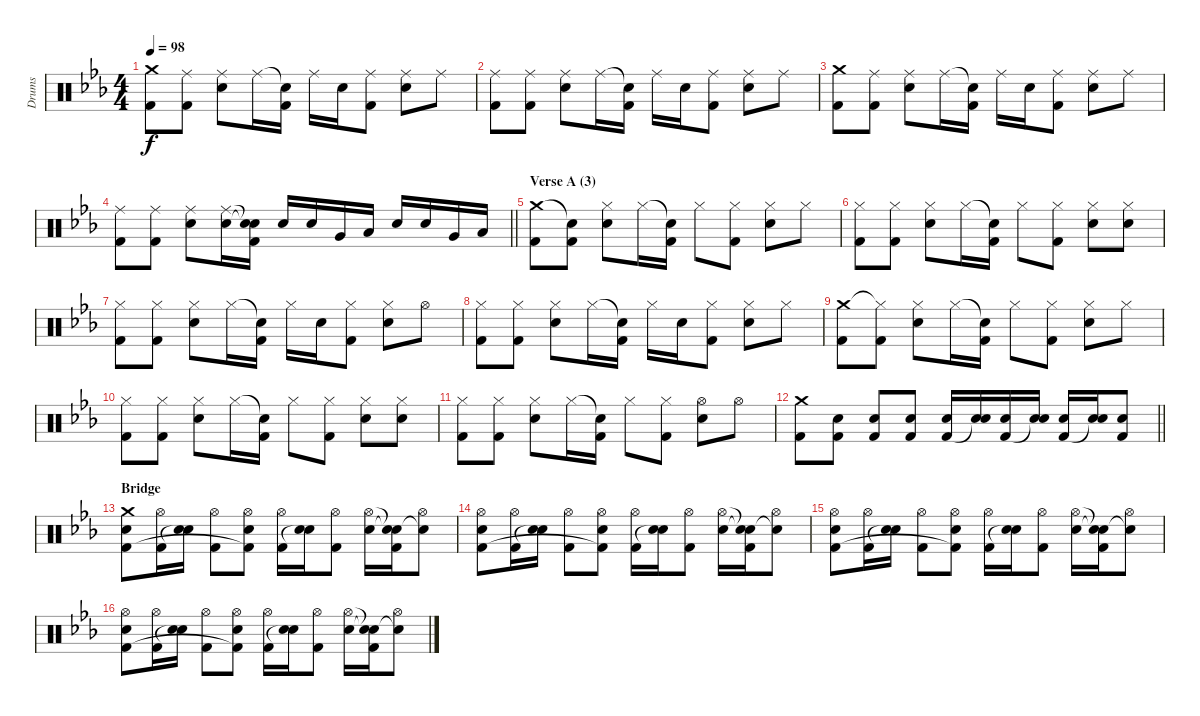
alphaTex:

\track ("Drums" "Drums") {instrument percussion}
\staff {score}
\articulation defaults
\ts (4 4)
\tempo 98
\clef neutral
\ks cminor
("Crash medium (hit)" "Kick (hit) 2").8{dy f} ("Ride (middle)" "Kick (hit) 2").8 ("Ride (middle)" "Electric Snare (hit)").8 "Ride (middle)".16 ("Snare (hit)"{t} "Kick (hit) 2").16 "Ride (middle)".16 "Electric Snare (hit)".16 ("Ride (middle)" "Kick (hit) 2").8 ("Ride (middle)" "Electric Snare (hit)").8 "Ride (middle)".8 |
("Ride (middle)" "Kick (hit) 2").8 ("Ride (middle)" "Kick (hit) 2").8 ("Ride (middle)" "Electric Snare (hit)").8 "Ride (middle)".16 ("Snare (hit)"{t} "Kick (hit) 2").16 "Ride (middle)".16 "Electric Snare (hit)".16 ("Ride (middle)" "Kick (hit) 2").8 ("Ride (middle)" "Electric Snare (hit)").8 "Ride (middle)".8 |
("Crash medium (hit)" "Kick (hit) 2").8 ("Ride (middle)" "Kick (hit) 2").8 ("Ride (middle)" "Electric Snare (hit)").8 "Ride (middle)".16 ("Snare (hit)"{t} "Kick (hit) 2").16 "Ride (middle)".16 "Electric Snare (hit)".16 ("Ride (middle)" "Kick (hit) 2").8 ("Ride (middle)" "Electric Snare (hit)").8 "Ride (middle)".8 |
\barLineRight lightlight
("Ride (middle)" "Kick (hit) 2").8 ("Ride (middle)" "Kick (hit) 2").8 ("Ride (middle)" "Electric Snare (hit)").8 ("Ride (middle)" "Electric Snare (hit)").16 ("Snare (hit)"{t} "Snare (hit)"{t} "Kick (hit) 2").16 "Electric Snare (hit)".16 "Electric Snare (hit)".16 "Very Low Tom (hit)".16 "Low Floor Tom (hit)".16 "Electric Snare (hit)".16 "Electric Snare (hit)".16 "Very Low Tom (hit)".16 "Low Floor Tom (hit)".16 |
\section ("" "Verse A (3)")
("Crash medium (hit)" "Kick (hit) 2").8 ("Snare (hit)"{t} "Kick (hit) 2").8 ("Hi-Hat (closed)" "Electric Snare (hit)").8 "Hi-Hat (closed)".16 ("Snare (hit)"{t} "Kick (hit) 2").16 "Hi-Hat (closed)".8 ("Hi-Hat (closed)" "Kick (hit) 2").8 ("Hi-Hat (closed)" "Electric Snare (hit)").8 "Hi-Hat (closed)".8 |
("Hi-Hat (closed)" "Kick (hit) 2").8 ("Hi-Hat (closed)" "Kick (hit) 2").8 ("Hi-Hat (closed)" "Electric Snare (hit)").8 "Hi-Hat (closed)".16 ("Snare (hit)"{t} "Kick (hit) 2").16 "Hi-Hat (closed)".8 ("Hi-Hat (closed)" "Kick (hit) 2").8 ("Hi-Hat (closed)" "Electric Snare (hit)").8 ("Hi-Hat (closed)" "Electric Snare (hit)").8 |
("Hi-Hat (closed)" "Kick (hit) 2").8 ("Hi-Hat (closed)" "Kick (hit) 2").8 ("Hi-Hat (closed)" "Electric Snare (hit)").8 "Hi-Hat (closed)".16 ("Snare (hit)"{t} "Kick (hit) 2").16 "Hi-Hat (closed)".16 "Electric Snare (hit)".16 ("Hi-Hat (closed)" "Kick (hit) 2").8 ("Hi-Hat (closed)" "Electric Snare (hit)").8 "Hi-Hat (open)".8 |
("Hi-Hat (closed)" "Kick (hit) 2").8 ("Hi-Hat (closed)" "Kick (hit) 2").8 ("Hi-Hat (closed)" "Electric Snare (hit)").8 "Hi-Hat (closed)".16 ("Snare (hit)"{t} "Kick (hit) 2").16 "Hi-Hat (closed)".16 "Electric Snare (hit)".16 ("Hi-Hat (closed)" "Kick (hit) 2").8 ("Hi-Hat (closed)" "Electric Snare (hit)").8 "Hi-Hat (closed)".8 |
("Crash medium (hit)" "Kick (hit) 2").8 ("Hi-Hat (closed)"{t} "Kick (hit) 2").8 ("Hi-Hat (closed)" "Electric Snare (hit)").8 "Hi-Hat (closed)".16 ("Snare (hit)"{t} "Kick (hit) 2").16 "Hi-Hat (closed)".8 ("Hi-Hat (closed)" "Kick (hit) 2").8 ("Hi-Hat (closed)" "Electric Snare (hit)").8 "Hi-Hat (closed)".8 |
("Hi-Hat (closed)" "Kick (hit) 2").8 ("Hi-Hat (closed)" "Kick (hit) 2").8 ("Hi-Hat (closed)" "Electric Snare (hit)").8 "Hi-Hat (closed)".16 ("Snare (hit)"{t} "Kick (hit) 2").16 "Hi-Hat (closed)".8 ("Hi-Hat (closed)" "Kick (hit) 2").8 ("Hi-Hat (closed)" "Electric Snare (hit)").8 ("Hi-Hat (closed)" "Electric Snare (hit)").8 |
("Hi-Hat (closed)" "Kick (hit) 2").8 ("Hi-Hat (closed)" "Kick (hit) 2").8 ("Hi-Hat (closed)" "Electric Snare (hit)").8 "Hi-Hat (closed)".16 ("Snare (hit)"{t} "Kick (hit) 2").16 "Hi-Hat (closed)".8 ("Hi-Hat (closed)" "Kick (hit) 2").8 ("Hi-Hat (open)" "Electric Snare (hit)").8 "Hi-Hat (open)".8 |
\barLineRight lightlight
("Crash medium (hit)" "Kick (hit) 2").8 ("Electric Snare (hit)" "Kick (hit) 2").8 ("Electric Snare (hit)" "Kick (hit) 2").8 ("Electric Snare (hit)" "Kick (hit) 2").8 ("Electric Snare (hit)" "Kick (hit) 2").16 ("Electric Snare (hit)" "Snare (hit)"{t}).16 ("Electric Snare (hit)" "Kick (hit) 2").16 ("Electric Snare (hit)" "Snare (hit)"{t}).16 ("Electric Snare (hit)" "Kick (hit) 2").16 ("Electric Snare (hit)" "Snare (hit)"{t}).16 ("Electric Snare (hit)" "Kick (hit) 2").8 |
\section ("" "Bridge")
("Crash medium (hit)" "Electric Snare (hit)" "Kick (hit) 2").8 ("Hi-Hat (open)" "Kick (hit) 2").16 ("Electric Snare (hit)" "Snare (hit)"{t}).16 ("Hi-Hat (open)" "Kick (hit) 2").8 ("Hi-Hat (open)" "Electric Snare (hit)" "Kick (hit) 2"{t}).8 ("Hi-Hat (open)" "Kick (hit) 2").16 ("Electric Snare (hit)" "Snare (hit)"{t}).16 ("Hi-Hat (open)" "Kick (hit) 2").8 ("Hi-Hat (open)" "Electric Snare (hit)").16 ("Snare (hit)"{t} "Snare (hit)"{t} "Kick (hit) 2").16 ("Hi-Hat (open)" "Snare (hit)"{t}).8 |
("Hi-Hat (open)" "Electric Snare (hit)" "Kick (hit) 2").8 ("Hi-Hat (open)" "Kick (hit) 2").16 ("Electric Snare (hit)" "Snare (hit)"{t}).16 ("Hi-Hat (open)" "Kick (hit) 2").8 ("Hi-Hat (open)" "Electric Snare (hit)" "Kick (hit) 2"{t}).8 ("Hi-Hat (open)" "Kick (hit) 2").16 ("Electric Snare (hit)" "Snare (hit)"{t}).16 ("Hi-Hat (open)" "Kick (hit) 2").8 ("Hi-Hat (open)" "Electric Snare (hit)").16 ("Snare (hit)"{t} "Snare (hit)"{t} "Kick (hit) 2").16 ("Hi-Hat (open)" "Snare (hit)"{t}).8 |
("Hi-Hat (open)" "Electric Snare (hit)" "Kick (hit) 2").8 ("Hi-Hat (open)" "Kick (hit) 2").16 ("Electric Snare (hit)" "Snare (hit)"{t}).16 ("Hi-Hat (open)" "Kick (hit) 2").8 ("Hi-Hat (open)" "Electric Snare (hit)" "Kick (hit) 2"{t}).8 ("Hi-Hat (open)" "Kick (hit) 2").16 ("Electric Snare (hit)" "Snare (hit)"{t}).16 ("Hi-Hat (open)" "Kick (hit) 2").8 ("Hi-Hat (open)" "Electric Snare (hit)").16 ("Snare (hit)"{t} "Snare (hit)"{t} "Kick (hit) 2").16 ("Hi-Hat (open)" "Snare (hit)"{t}).8 |
("Hi-Hat (open)" "Electric Snare (hit)" "Kick (hit) 2").8 ("Hi-Hat (open)" "Kick (hit) 2").16 ("Electric Snare (hit)" "Snare (hit)"{t}).16 ("Hi-Hat (open)" "Kick (hit) 2").8 ("Hi-Hat (open)" "Electric Snare (hit)" "Kick (hit) 2"{t}).8 ("Hi-Hat (open)" "Kick (hit) 2").16 ("Electric Snare (hit)" "Snare (hit)"{t}).16 ("Hi-Hat (open)" "Kick (hit) 2").8 ("Hi-Hat (open)" "Electric Snare (hit)").16 ("Snare (hit)"{t} "Snare (hit)"{t} "Kick (hit) 2").16 ("Hi-Hat (open)" "Snare (hit)"{t}).8
